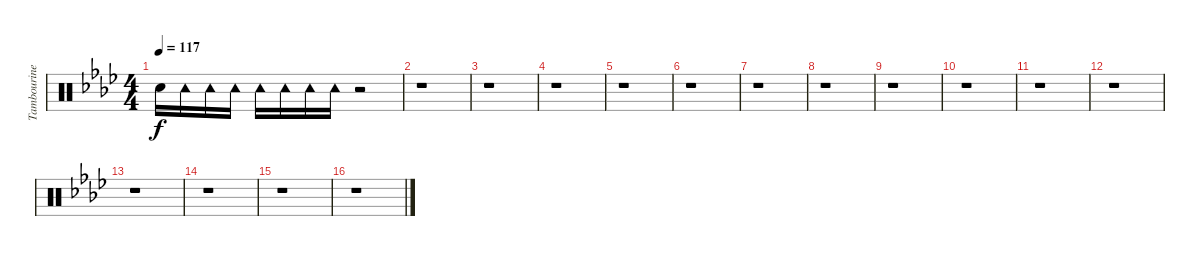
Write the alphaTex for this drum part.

\track ("Tambourine" "Tambourine") {instrument percussion}
\staff {score}
\articulation defaults
\ts (4 4)
\tempo 117
\clef neutral
\ks ab "Snare (hit)"{t}.16{dy f} "Tambourine (hit)".16 "Tambourine (hit)".16 "Tambourine (hit)".16 "Tambourine (hit)".16 "Tambourine (hit)".16 "Tambourine (hit)".16 "Tambourine (hit)".16
r.2 |
r.1 |
r.1 |
r.1 |
r.1 |
r.1 |
r.1 |
r.1 |
r.1 |
r.1 |
r.1 |
r.1 |
r.1 |
r.1 |
r.1 |
r.1
